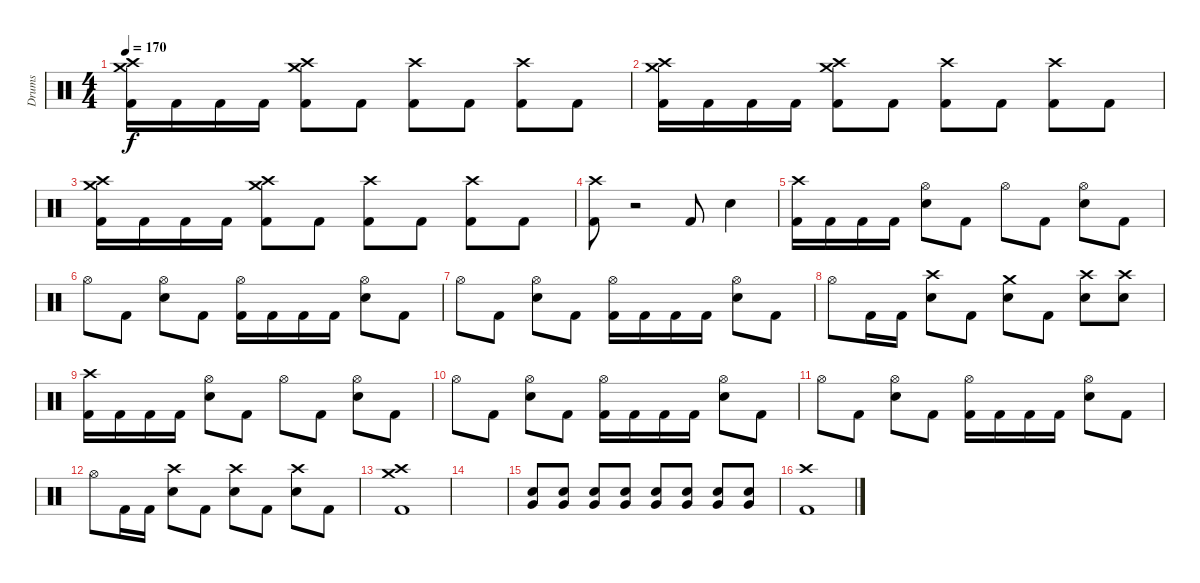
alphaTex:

\track ("Drums" "Drums") {instrument percussion}
\staff {score}
\articulation defaults
\ts (4 4)
\tempo 170
\clef neutral
\ks c
("Crash high (hit)" "Crash medium (hit)" "Kick (hit) 2").16{dy f} "Kick (hit) 2".16 "Kick (hit) 2".16 "Kick (hit) 2".16 ("Crash high (hit)" "Crash medium (hit)" "Kick (hit) 2").8 "Kick (hit) 2".8 ("Crash high (hit)" "Kick (hit) 2").8 "Kick (hit) 2".8 ("Crash high (hit)" "Kick (hit) 2").8 "Kick (hit) 2".8 |
("Crash high (hit)" "Crash medium (hit)" "Kick (hit) 2").16 "Kick (hit) 2".16 "Kick (hit) 2".16 "Kick (hit) 2".16 ("Crash high (hit)" "Crash medium (hit)" "Kick (hit) 2").8 "Kick (hit) 2".8 ("Crash high (hit)" "Kick (hit) 2").8 "Kick (hit) 2".8 ("Crash high (hit)" "Kick (hit) 2").8 "Kick (hit) 2".8 |
("Crash high (hit)" "Crash medium (hit)" "Kick (hit) 2").16 "Kick (hit) 2".16 "Kick (hit) 2".16 "Kick (hit) 2".16 ("Crash high (hit)" "Crash medium (hit)" "Kick (hit) 2").8 "Kick (hit) 2".8 ("Crash high (hit)" "Kick (hit) 2").8 "Kick (hit) 2".8 ("Crash high (hit)" "Kick (hit) 2").8 "Kick (hit) 2".8 |
("Crash high (hit)" "Kick (hit) 2").8 r.2{volume 0} "Kick (hit) 2".8{volume 16} "Electric Snare (hit)".4 |
("Crash high (hit)" "Kick (hit) 2").16 "Kick (hit) 2".16 "Kick (hit) 2".16 "Kick (hit) 2".16 ("Hi-Hat (open)" "Electric Snare (hit)").8 "Kick (hit) 2".8 "Hi-Hat (open)".8 "Kick (hit) 2".8 ("Hi-Hat (open)" "Electric Snare (hit)").8 "Kick (hit) 2".8 |
"Hi-Hat (open)".8 "Kick (hit) 2".8 ("Hi-Hat (open)" "Electric Snare (hit)").8 "Kick (hit) 2".8 ("Hi-Hat (open)" "Kick (hit) 2").16 "Kick (hit) 2".16 "Kick (hit) 2".16 "Kick (hit) 2".16 ("Hi-Hat (open)" "Electric Snare (hit)").8 "Kick (hit) 2".8 |
"Hi-Hat (open)".8 "Kick (hit) 2".8 ("Hi-Hat (open)" "Electric Snare (hit)").8 "Kick (hit) 2".8 ("Hi-Hat (open)" "Kick (hit) 2").16 "Kick (hit) 2".16 "Kick (hit) 2".16 "Kick (hit) 2".16 ("Hi-Hat (open)" "Electric Snare (hit)").8 "Kick (hit) 2".8 |
"Hi-Hat (open)".8 "Kick (hit) 2".16 "Kick (hit) 2".16 ("Crash high (hit)" "Electric Snare (hit)").8 "Kick (hit) 2".8 ("Crash medium (hit)" "Electric Snare (hit)").8 "Kick (hit) 2".8 ("Crash high (hit)" "Electric Snare (hit)").8 ("Crash high (hit)" "Electric Snare (hit)").8 |
("Crash high (hit)" "Kick (hit) 2").16 "Kick (hit) 2".16 "Kick (hit) 2".16 "Kick (hit) 2".16 ("Hi-Hat (open)" "Electric Snare (hit)").8 "Kick (hit) 2".8 "Hi-Hat (open)".8 "Kick (hit) 2".8 ("Hi-Hat (open)" "Electric Snare (hit)").8 "Kick (hit) 2".8 |
"Hi-Hat (open)".8 "Kick (hit) 2".8 ("Hi-Hat (open)" "Electric Snare (hit)").8 "Kick (hit) 2".8 ("Hi-Hat (open)" "Kick (hit) 2").16 "Kick (hit) 2".16 "Kick (hit) 2".16 "Kick (hit) 2".16 ("Hi-Hat (open)" "Electric Snare (hit)").8 "Kick (hit) 2".8 |
"Hi-Hat (open)".8 "Kick (hit) 2".8 ("Hi-Hat (open)" "Electric Snare (hit)").8 "Kick (hit) 2".8 ("Hi-Hat (open)" "Kick (hit) 2").16 "Kick (hit) 2".16 "Kick (hit) 2".16 "Kick (hit) 2".16 ("Hi-Hat (open)" "Electric Snare (hit)").8 "Kick (hit) 2".8 |
"Hi-Hat (open)".8 "Kick (hit) 2".16 "Kick (hit) 2".16 ("Crash high (hit)" "Electric Snare (hit)").8 "Kick (hit) 2".8 ("Crash high (hit)" "Electric Snare (hit)").8 "Kick (hit) 2".8 ("Crash high (hit)" "Electric Snare (hit)").8 "Kick (hit) 2".8 |
("Crash high (hit)" "Crash medium (hit)" "Kick (hit) 2").1 |
|
("Very Low Tom (hit)" "Electric Snare (hit)").8 ("Very Low Tom (hit)" "Electric Snare (hit)").8 ("Very Low Tom (hit)" "Electric Snare (hit)").8 ("Very Low Tom (hit)" "Electric Snare (hit)").8 ("Very Low Tom (hit)" "Electric Snare (hit)").8 ("Very Low Tom (hit)" "Electric Snare (hit)").8 ("Very Low Tom (hit)" "Electric Snare (hit)").8 ("Very Low Tom (hit)" "Electric Snare (hit)").8 |
("Crash high (hit)" "Kick (hit) 2").1
